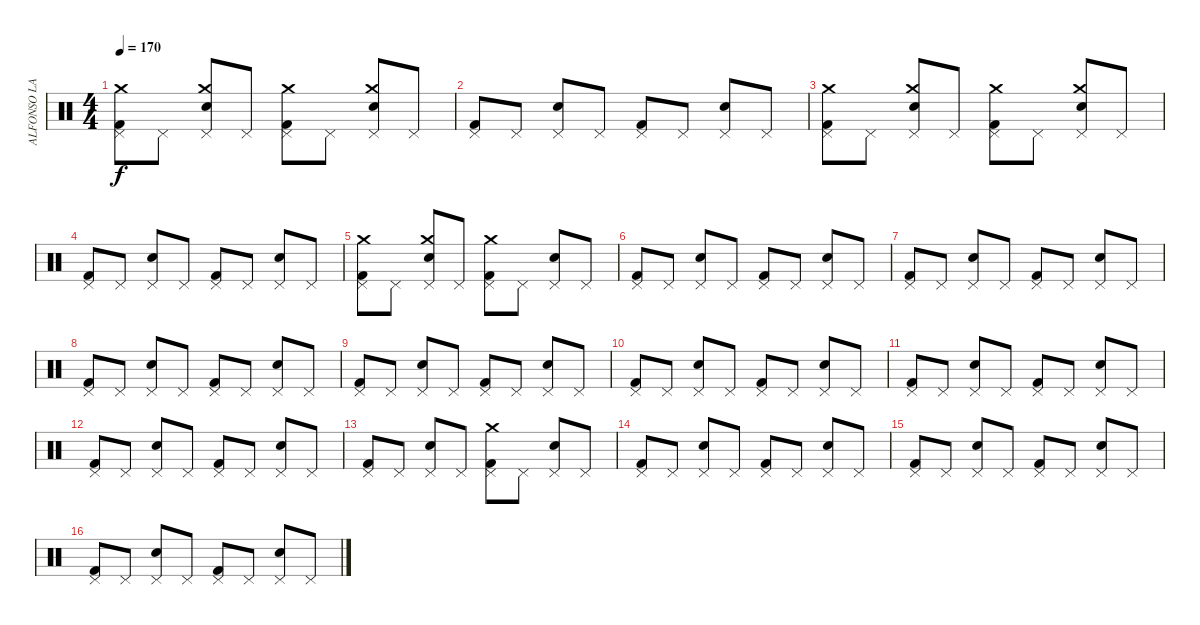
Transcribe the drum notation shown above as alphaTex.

\track ("ALFONSO LANTERO" "ALFONSO LA") {instrument percussion}
\staff {score}
\articulation defaults
\ts (4 4)
\tempo 170
\clef neutral
\ks c
("Kick (hit) 2" "Pedal Hi-Hat (hit)" "Crash medium (hit)").8{dy f} "Pedal Hi-Hat (hit)".8 ("Electric Snare (hit)" "Pedal Hi-Hat (hit)" "Crash medium (hit)").8 "Pedal Hi-Hat (hit)".8 ("Kick (hit) 2" "Pedal Hi-Hat (hit)" "Crash medium (hit)").8 "Pedal Hi-Hat (hit)".8 ("Electric Snare (hit)" "Pedal Hi-Hat (hit)" "Crash medium (hit)").8 "Pedal Hi-Hat (hit)".8 |
("Kick (hit) 2" "Pedal Hi-Hat (hit)").8 "Pedal Hi-Hat (hit)".8 ("Electric Snare (hit)" "Pedal Hi-Hat (hit)").8 "Pedal Hi-Hat (hit)".8 ("Kick (hit) 2" "Pedal Hi-Hat (hit)").8 "Pedal Hi-Hat (hit)".8 ("Electric Snare (hit)" "Pedal Hi-Hat (hit)").8 "Pedal Hi-Hat (hit)".8 |
("Kick (hit) 2" "Pedal Hi-Hat (hit)" "Crash medium (hit)").8 "Pedal Hi-Hat (hit)".8 ("Electric Snare (hit)" "Pedal Hi-Hat (hit)" "Crash medium (hit)").8 "Pedal Hi-Hat (hit)".8 ("Kick (hit) 2" "Pedal Hi-Hat (hit)" "Crash medium (hit)").8 "Pedal Hi-Hat (hit)".8 ("Electric Snare (hit)" "Pedal Hi-Hat (hit)" "Crash medium (hit)").8 "Pedal Hi-Hat (hit)".8 |
("Kick (hit) 2" "Pedal Hi-Hat (hit)").8 "Pedal Hi-Hat (hit)".8 ("Electric Snare (hit)" "Pedal Hi-Hat (hit)").8 "Pedal Hi-Hat (hit)".8 ("Kick (hit) 2" "Pedal Hi-Hat (hit)").8 "Pedal Hi-Hat (hit)".8 ("Electric Snare (hit)" "Pedal Hi-Hat (hit)").8 "Pedal Hi-Hat (hit)".8 |
("Kick (hit) 2" "Pedal Hi-Hat (hit)" "Crash medium (hit)").8 "Pedal Hi-Hat (hit)".8 ("Electric Snare (hit)" "Pedal Hi-Hat (hit)" "Crash medium (hit)").8 "Pedal Hi-Hat (hit)".8 ("Kick (hit) 2" "Pedal Hi-Hat (hit)" "Crash medium (hit)").8 "Pedal Hi-Hat (hit)".8 ("Electric Snare (hit)" "Pedal Hi-Hat (hit)").8 "Pedal Hi-Hat (hit)".8 |
("Kick (hit) 2" "Pedal Hi-Hat (hit)").8 "Pedal Hi-Hat (hit)".8 ("Electric Snare (hit)" "Pedal Hi-Hat (hit)").8 "Pedal Hi-Hat (hit)".8 ("Kick (hit) 2" "Pedal Hi-Hat (hit)").8 "Pedal Hi-Hat (hit)".8 ("Electric Snare (hit)" "Pedal Hi-Hat (hit)").8 "Pedal Hi-Hat (hit)".8 |
("Kick (hit) 2" "Pedal Hi-Hat (hit)").8 "Pedal Hi-Hat (hit)".8 ("Electric Snare (hit)" "Pedal Hi-Hat (hit)").8 "Pedal Hi-Hat (hit)".8 ("Kick (hit) 2" "Pedal Hi-Hat (hit)").8 "Pedal Hi-Hat (hit)".8 ("Electric Snare (hit)" "Pedal Hi-Hat (hit)").8 "Pedal Hi-Hat (hit)".8 |
("Kick (hit) 2" "Pedal Hi-Hat (hit)").8 "Pedal Hi-Hat (hit)".8 ("Electric Snare (hit)" "Pedal Hi-Hat (hit)").8 "Pedal Hi-Hat (hit)".8 ("Kick (hit) 2" "Pedal Hi-Hat (hit)").8 "Pedal Hi-Hat (hit)".8 ("Electric Snare (hit)" "Pedal Hi-Hat (hit)").8 "Pedal Hi-Hat (hit)".8 |
("Kick (hit) 2" "Pedal Hi-Hat (hit)").8 "Pedal Hi-Hat (hit)".8 ("Electric Snare (hit)" "Pedal Hi-Hat (hit)").8 "Pedal Hi-Hat (hit)".8 ("Kick (hit) 2" "Pedal Hi-Hat (hit)").8 "Pedal Hi-Hat (hit)".8 ("Electric Snare (hit)" "Pedal Hi-Hat (hit)").8 "Pedal Hi-Hat (hit)".8 |
("Kick (hit) 2" "Pedal Hi-Hat (hit)").8 "Pedal Hi-Hat (hit)".8 ("Electric Snare (hit)" "Pedal Hi-Hat (hit)").8 "Pedal Hi-Hat (hit)".8 ("Kick (hit) 2" "Pedal Hi-Hat (hit)").8 "Pedal Hi-Hat (hit)".8 ("Electric Snare (hit)" "Pedal Hi-Hat (hit)").8 "Pedal Hi-Hat (hit)".8 |
("Kick (hit) 2" "Pedal Hi-Hat (hit)").8 "Pedal Hi-Hat (hit)".8 ("Electric Snare (hit)" "Pedal Hi-Hat (hit)").8 "Pedal Hi-Hat (hit)".8 ("Kick (hit) 2" "Pedal Hi-Hat (hit)").8 "Pedal Hi-Hat (hit)".8 ("Electric Snare (hit)" "Pedal Hi-Hat (hit)").8 "Pedal Hi-Hat (hit)".8 |
("Kick (hit) 2" "Pedal Hi-Hat (hit)").8 "Pedal Hi-Hat (hit)".8 ("Electric Snare (hit)" "Pedal Hi-Hat (hit)").8 "Pedal Hi-Hat (hit)".8 ("Kick (hit) 2" "Pedal Hi-Hat (hit)").8 "Pedal Hi-Hat (hit)".8 ("Electric Snare (hit)" "Pedal Hi-Hat (hit)").8 "Pedal Hi-Hat (hit)".8 |
("Kick (hit) 2" "Pedal Hi-Hat (hit)").8 "Pedal Hi-Hat (hit)".8 ("Electric Snare (hit)" "Pedal Hi-Hat (hit)").8 "Pedal Hi-Hat (hit)".8 ("Kick (hit) 2" "Pedal Hi-Hat (hit)" "Crash medium (hit)").8 "Pedal Hi-Hat (hit)".8 ("Electric Snare (hit)" "Pedal Hi-Hat (hit)").8 "Pedal Hi-Hat (hit)".8 |
("Kick (hit) 2" "Pedal Hi-Hat (hit)").8 "Pedal Hi-Hat (hit)".8 ("Electric Snare (hit)" "Pedal Hi-Hat (hit)").8 "Pedal Hi-Hat (hit)".8 ("Kick (hit) 2" "Pedal Hi-Hat (hit)").8 "Pedal Hi-Hat (hit)".8 ("Electric Snare (hit)" "Pedal Hi-Hat (hit)").8 "Pedal Hi-Hat (hit)".8 |
("Kick (hit) 2" "Pedal Hi-Hat (hit)").8 "Pedal Hi-Hat (hit)".8 ("Electric Snare (hit)" "Pedal Hi-Hat (hit)").8 "Pedal Hi-Hat (hit)".8 ("Kick (hit) 2" "Pedal Hi-Hat (hit)").8 "Pedal Hi-Hat (hit)".8 ("Electric Snare (hit)" "Pedal Hi-Hat (hit)").8 "Pedal Hi-Hat (hit)".8 |
("Kick (hit) 2" "Pedal Hi-Hat (hit)").8 "Pedal Hi-Hat (hit)".8 ("Electric Snare (hit)" "Pedal Hi-Hat (hit)").8 "Pedal Hi-Hat (hit)".8 ("Kick (hit) 2" "Pedal Hi-Hat (hit)").8 "Pedal Hi-Hat (hit)".8 ("Electric Snare (hit)" "Pedal Hi-Hat (hit)").8 "Pedal Hi-Hat (hit)".8
